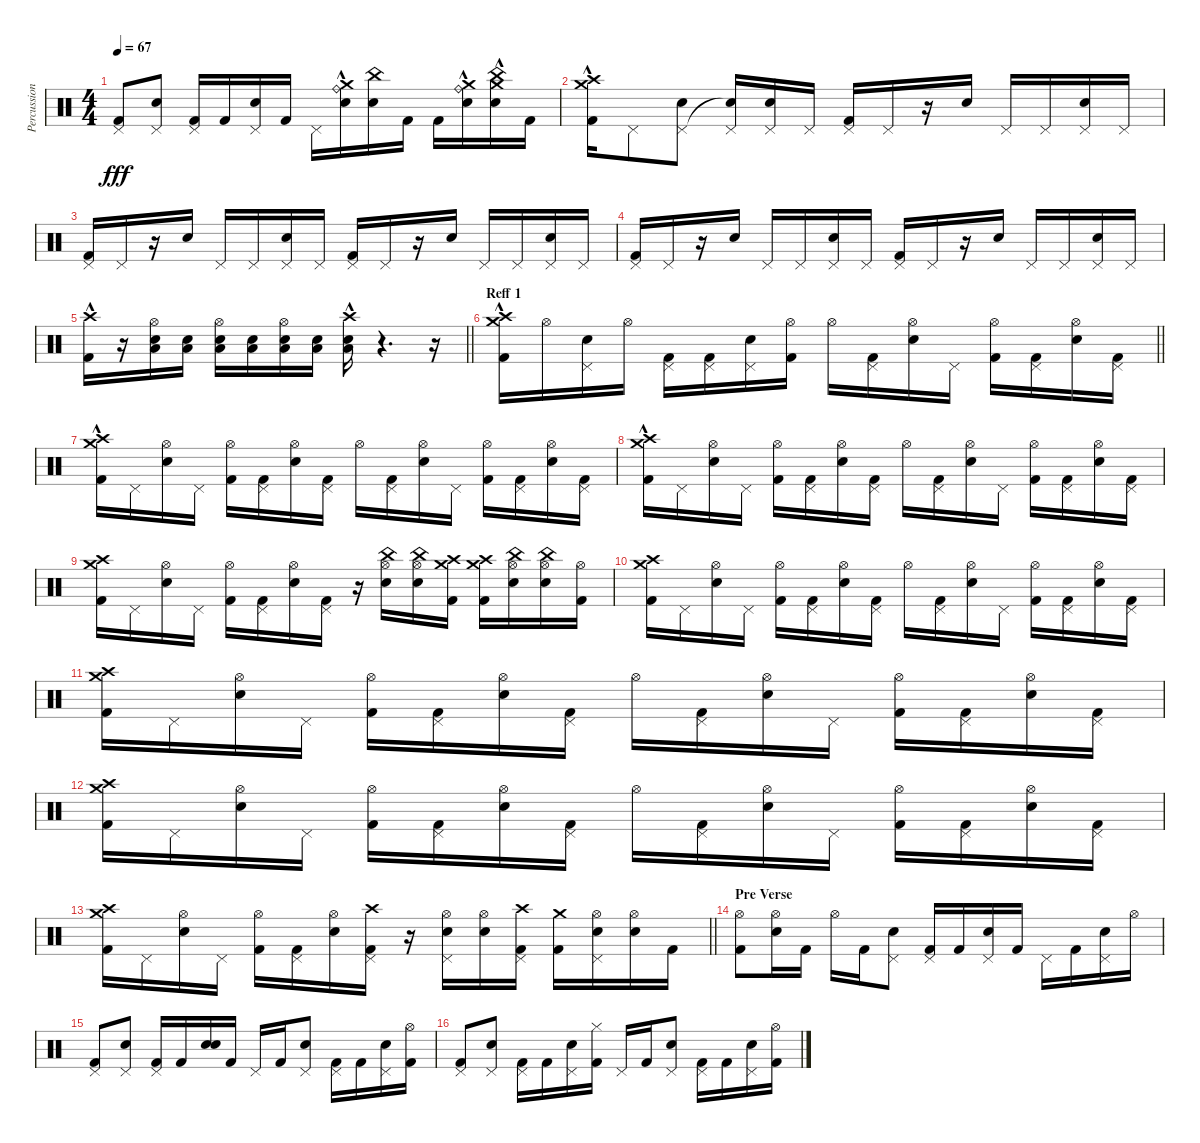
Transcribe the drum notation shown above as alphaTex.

\track ("Percussion(Tomi)" "Percussion") {instrument percussion}
\staff {score}
\articulation defaults
\ts (4 4)
\tempo 67
\clef neutral
\ks c
("Pedal Hi-Hat (hit)" "Kick (hit) 2").8{dy fff} ("Pedal Hi-Hat (hit)" "Electric Snare (hit)").8 ("Kick (hit) 2" "Pedal Hi-Hat (hit)").16 "Kick (hit) 2".16 ("Pedal Hi-Hat (hit)" "Electric Snare (hit)").16 "Kick (hit) 2".16 "Pedal Hi-Hat (hit)".16 ("Electric Snare (hit)" "Ride (bell)" "Crash medium (hit)"{hac}).16 ("China (hit)" "Electric Snare (hit)").16 "Kick (hit) 2".16 "Kick (hit) 2".16 ("Ride (bell)" "Electric Snare (hit)" "Crash medium (hit)"{hac}).16 ("China (hit)" "Electric Snare (hit)" "Crash medium (hit)"{hac}).16 "Kick (hit) 2".16 |
("Crash high (hit)"{hac} "Kick (hit) 2" "Crash medium (hit)"{hac}).16 "Pedal Hi-Hat (hit)".8 ("Pedal Hi-Hat (hit)" "Electric Snare (hit)").8 ("Snare (hit)"{t} "Pedal Hi-Hat (hit)").16 ("Pedal Hi-Hat (hit)" "Electric Snare (hit)").16 "Pedal Hi-Hat (hit)".16 ("Kick (hit) 2" "Pedal Hi-Hat (hit)").16 "Pedal Hi-Hat (hit)".16 r.16 "Electric Snare (hit)".16 "Pedal Hi-Hat (hit)".16 "Pedal Hi-Hat (hit)".16 ("Pedal Hi-Hat (hit)" "Electric Snare (hit)").16 "Pedal Hi-Hat (hit)".16 |
("Kick (hit) 2" "Pedal Hi-Hat (hit)").16 "Pedal Hi-Hat (hit)".16 r.16 "Electric Snare (hit)".16 "Pedal Hi-Hat (hit)".16 "Pedal Hi-Hat (hit)".16 ("Pedal Hi-Hat (hit)" "Electric Snare (hit)").16 "Pedal Hi-Hat (hit)".16 ("Kick (hit) 2" "Pedal Hi-Hat (hit)").16 "Pedal Hi-Hat (hit)".16 r.16 "Electric Snare (hit)".16 "Pedal Hi-Hat (hit)".16 "Pedal Hi-Hat (hit)".16 ("Pedal Hi-Hat (hit)" "Electric Snare (hit)").16 "Pedal Hi-Hat (hit)".16 |
("Kick (hit) 2" "Pedal Hi-Hat (hit)").16 "Pedal Hi-Hat (hit)".16 r.16 "Electric Snare (hit)".16 "Pedal Hi-Hat (hit)".16 "Pedal Hi-Hat (hit)".16 ("Pedal Hi-Hat (hit)" "Electric Snare (hit)").16 "Pedal Hi-Hat (hit)".16 ("Kick (hit) 2" "Pedal Hi-Hat (hit)").16 "Pedal Hi-Hat (hit)".16 r.16 "Electric Snare (hit)".16 "Pedal Hi-Hat (hit)".16 "Pedal Hi-Hat (hit)".16 ("Pedal Hi-Hat (hit)" "Electric Snare (hit)").16 "Pedal Hi-Hat (hit)".16 |
\barLineRight lightlight
("Kick (hit) 2" "Crash high (hit)"{hac}).16 r.16 ("Electric Snare (hit)" "Low Floor Tom (hit)" "Hi-Hat (open)").16 ("Electric Snare (hit)" "Low Floor Tom (hit)").16 ("Hi-Hat (open)" "Electric Snare (hit)" "Low Floor Tom (hit)").16 ("Electric Snare (hit)" "Low Floor Tom (hit)").16 ("Hi-Hat (open)" "Low Floor Tom (hit)" "Electric Snare (hit)").16 ("Low Floor Tom (hit)" "Electric Snare (hit)").16 ("Electric Snare (hit)" "Low Floor Tom (hit)" "Crash high (hit)"{hac}).16 r.4{d} r.16 |
\section ("" "Reff 1")
\barLineRight lightlight
("Kick (hit) 2" "Crash medium (hit)"{hac} "Crash high (hit)"{hac}).16 "Hi-Hat (open)".16 ("Electric Snare (hit)" "Pedal Hi-Hat (hit)").16 "Hi-Hat (open)".16 ("Kick (hit) 2" "Pedal Hi-Hat (hit)").16 ("Kick (hit) 2" "Pedal Hi-Hat (hit)").16 ("Electric Snare (hit)" "Pedal Hi-Hat (hit)").16 ("Kick (hit) 2" "Hi-Hat (open)").16 "Hi-Hat (open)".16 ("Kick (hit) 2" "Pedal Hi-Hat (hit)").16 ("Electric Snare (hit)" "Hi-Hat (open)").16 "Pedal Hi-Hat (hit)".16 ("Kick (hit) 2" "Hi-Hat (open)").16 ("Pedal Hi-Hat (hit)" "Kick (hit) 2").16 ("Hi-Hat (open)" "Electric Snare (hit)").16 ("Kick (hit) 2" "Pedal Hi-Hat (hit)").16 |
("Kick (hit) 2" "Crash medium (hit)"{hac} "Crash high (hit)"{hac}).16 "Pedal Hi-Hat (hit)".16 ("Hi-Hat (open)" "Electric Snare (hit)").16 "Pedal Hi-Hat (hit)".16 ("Kick (hit) 2" "Hi-Hat (open)").16 ("Kick (hit) 2" "Pedal Hi-Hat (hit)").16 ("Hi-Hat (open)" "Electric Snare (hit)").16 ("Kick (hit) 2" "Pedal Hi-Hat (hit)").16 "Hi-Hat (open)".16 ("Kick (hit) 2" "Pedal Hi-Hat (hit)").16 ("Electric Snare (hit)" "Hi-Hat (open)").16 "Pedal Hi-Hat (hit)".16 ("Kick (hit) 2" "Hi-Hat (open)").16 ("Pedal Hi-Hat (hit)" "Kick (hit) 2").16 ("Hi-Hat (open)" "Electric Snare (hit)").16 ("Kick (hit) 2" "Pedal Hi-Hat (hit)").16 |
("Kick (hit) 2" "Crash medium (hit)"{hac} "Crash high (hit)"{hac}).16 "Pedal Hi-Hat (hit)".16 ("Hi-Hat (open)" "Electric Snare (hit)").16 "Pedal Hi-Hat (hit)".16 ("Kick (hit) 2" "Hi-Hat (open)").16 ("Kick (hit) 2" "Pedal Hi-Hat (hit)").16 ("Hi-Hat (open)" "Electric Snare (hit)").16 ("Kick (hit) 2" "Pedal Hi-Hat (hit)").16 "Hi-Hat (open)".16 ("Kick (hit) 2" "Pedal Hi-Hat (hit)").16 ("Electric Snare (hit)" "Hi-Hat (open)").16 "Pedal Hi-Hat (hit)".16 ("Kick (hit) 2" "Hi-Hat (open)").16 ("Pedal Hi-Hat (hit)" "Kick (hit) 2").16 ("Hi-Hat (open)" "Electric Snare (hit)").16 ("Kick (hit) 2" "Pedal Hi-Hat (hit)").16 |
("Kick (hit) 2" "Crash high (hit)" "Crash medium (hit)").16 "Pedal Hi-Hat (hit)".16 ("Hi-Hat (open)" "Electric Snare (hit)").16 "Pedal Hi-Hat (hit)".16 ("Kick (hit) 2" "Hi-Hat (open)").16 ("Kick (hit) 2" "Pedal Hi-Hat (hit)").16 ("Hi-Hat (open)" "Electric Snare (hit)").16 ("Kick (hit) 2" "Pedal Hi-Hat (hit)").16 r.16 ("China (hit)" "Hi-Hat (open)" "Electric Snare (hit)").16 ("China (hit)" "Hi-Hat (open)" "Electric Snare (hit)").16 ("Kick (hit) 2" "Crash medium (hit)" "Crash high (hit)").16 ("Kick (hit) 2" "Crash high (hit)" "Crash medium (hit)").16 ("China (hit)" "Hi-Hat (open)" "Electric Snare (hit)").16 ("China (hit)" "Hi-Hat (open)" "Electric Snare (hit)").16 ("Kick (hit) 2" "Hi-Hat (open)").16 |
("Crash medium (hit)" "Kick (hit) 2" "Crash high (hit)").16 "Pedal Hi-Hat (hit)".16 ("Electric Snare (hit)" "Hi-Hat (open)").16 "Pedal Hi-Hat (hit)".16 ("Kick (hit) 2" "Hi-Hat (open)").16 ("Kick (hit) 2" "Pedal Hi-Hat (hit)").16 ("Electric Snare (hit)" "Hi-Hat (open)").16 ("Kick (hit) 2" "Pedal Hi-Hat (hit)").16 "Hi-Hat (open)".16 ("Kick (hit) 2" "Pedal Hi-Hat (hit)").16 ("Hi-Hat (open)" "Electric Snare (hit)").16 "Pedal Hi-Hat (hit)".16 ("Kick (hit) 2" "Hi-Hat (open)").16 ("Kick (hit) 2" "Pedal Hi-Hat (hit)").16 ("Hi-Hat (open)" "Electric Snare (hit)").16 ("Pedal Hi-Hat (hit)" "Kick (hit) 2").16 |
("Kick (hit) 2" "Crash high (hit)" "Crash medium (hit)").16 "Pedal Hi-Hat (hit)".16 ("Electric Snare (hit)" "Hi-Hat (open)").16 "Pedal Hi-Hat (hit)".16 ("Kick (hit) 2" "Hi-Hat (open)").16 ("Kick (hit) 2" "Pedal Hi-Hat (hit)").16 ("Electric Snare (hit)" "Hi-Hat (open)").16 ("Kick (hit) 2" "Pedal Hi-Hat (hit)").16 "Hi-Hat (open)".16 ("Kick (hit) 2" "Pedal Hi-Hat (hit)").16 ("Hi-Hat (open)" "Electric Snare (hit)").16 "Pedal Hi-Hat (hit)".16 ("Kick (hit) 2" "Hi-Hat (open)").16 ("Kick (hit) 2" "Pedal Hi-Hat (hit)").16 ("Hi-Hat (open)" "Electric Snare (hit)").16 ("Pedal Hi-Hat (hit)" "Kick (hit) 2").16 |
("Crash medium (hit)" "Kick (hit) 2" "Crash high (hit)").16 "Pedal Hi-Hat (hit)".16 ("Electric Snare (hit)" "Hi-Hat (open)").16 "Pedal Hi-Hat (hit)".16 ("Kick (hit) 2" "Hi-Hat (open)").16 ("Kick (hit) 2" "Pedal Hi-Hat (hit)").16 ("Electric Snare (hit)" "Hi-Hat (open)").16 ("Kick (hit) 2" "Pedal Hi-Hat (hit)").16 "Hi-Hat (open)".16 ("Kick (hit) 2" "Pedal Hi-Hat (hit)").16 ("Hi-Hat (open)" "Electric Snare (hit)").16 "Pedal Hi-Hat (hit)".16 ("Kick (hit) 2" "Hi-Hat (open)").16 ("Kick (hit) 2" "Pedal Hi-Hat (hit)").16 ("Hi-Hat (open)" "Electric Snare (hit)").16 ("Pedal Hi-Hat (hit)" "Kick (hit) 2").16 |
\barLineRight lightlight
("Kick (hit) 2" "Crash medium (hit)" "Crash high (hit)").16 "Pedal Hi-Hat (hit)".16 ("Electric Snare (hit)" "Hi-Hat (open)").16 "Pedal Hi-Hat (hit)".16 ("Kick (hit) 2" "Hi-Hat (open)").16 ("Kick (hit) 2" "Pedal Hi-Hat (hit)").16 ("Electric Snare (hit)" "Hi-Hat (open)").16 ("Kick (hit) 2" "Crash high (hit)" "Pedal Hi-Hat (hit)").16 r.16 ("Hi-Hat (open)" "Pedal Hi-Hat (hit)" "Electric Snare (hit)").16 ("Hi-Hat (open)" "Electric Snare (hit)").16 ("Kick (hit) 2" "Pedal Hi-Hat (hit)" "Crash high (hit)").16 ("Kick (hit) 2" "Crash medium (hit)").16 ("Pedal Hi-Hat (hit)" "Hi-Hat (open)" "Electric Snare (hit)").16 ("Hi-Hat (open)" "Electric Snare (hit)").16 "Kick (hit) 2".16 |
\section ("" "Pre Verse")
("Kick (hit) 2" "Hi-Hat (open)").8 ("Hi-Hat (open)" "Electric Snare (hit)").16 "Kick (hit) 2".16 "Hi-Hat (open)".16 "Kick (hit) 2".16 ("Pedal Hi-Hat (hit)" "Electric Snare (hit)").8 ("Kick (hit) 2" "Pedal Hi-Hat (hit)").16 "Kick (hit) 2".16 ("Electric Snare (hit)" "Pedal Hi-Hat (hit)").16 "Kick (hit) 2".16 "Pedal Hi-Hat (hit)".16 "Kick (hit) 2".16 ("Electric Snare (hit)" "Pedal Hi-Hat (hit)").16 "Hi-Hat (open)".16 |
("Kick (hit) 2" "Pedal Hi-Hat (hit)").8 ("Electric Snare (hit)" "Pedal Hi-Hat (hit)").8 ("Kick (hit) 2" "Pedal Hi-Hat (hit)").16 "Kick (hit) 2".16 ("Electric Snare (hit)" "Electric Snare (hit)").16 "Kick (hit) 2".16 "Pedal Hi-Hat (hit)".16 "Kick (hit) 2".16 ("Electric Snare (hit)" "Pedal Hi-Hat (hit)").8 ("Pedal Hi-Hat (hit)" "Kick (hit) 2").16 "Kick (hit) 2".16 ("Electric Snare (hit)" "Pedal Hi-Hat (hit)").16 ("Kick (hit) 2" "Hi-Hat (open)").16 |
("Kick (hit) 2" "Pedal Hi-Hat (hit)").8 ("Electric Snare (hit)" "Pedal Hi-Hat (hit)").8 ("Pedal Hi-Hat (hit)" "Kick (hit) 2").16 "Kick (hit) 2".16 ("Pedal Hi-Hat (hit)" "Electric Snare (hit)").16 ("Kick (hit) 2" "Hi-Hat (closed)").16 "Pedal Hi-Hat (hit)".16 "Kick (hit) 2".16 ("Electric Snare (hit)" "Pedal Hi-Hat (hit)").8 ("Pedal Hi-Hat (hit)" "Kick (hit) 2").16 "Kick (hit) 2".16 ("Electric Snare (hit)" "Pedal Hi-Hat (hit)").16 ("Kick (hit) 2" "Hi-Hat (open)").16
